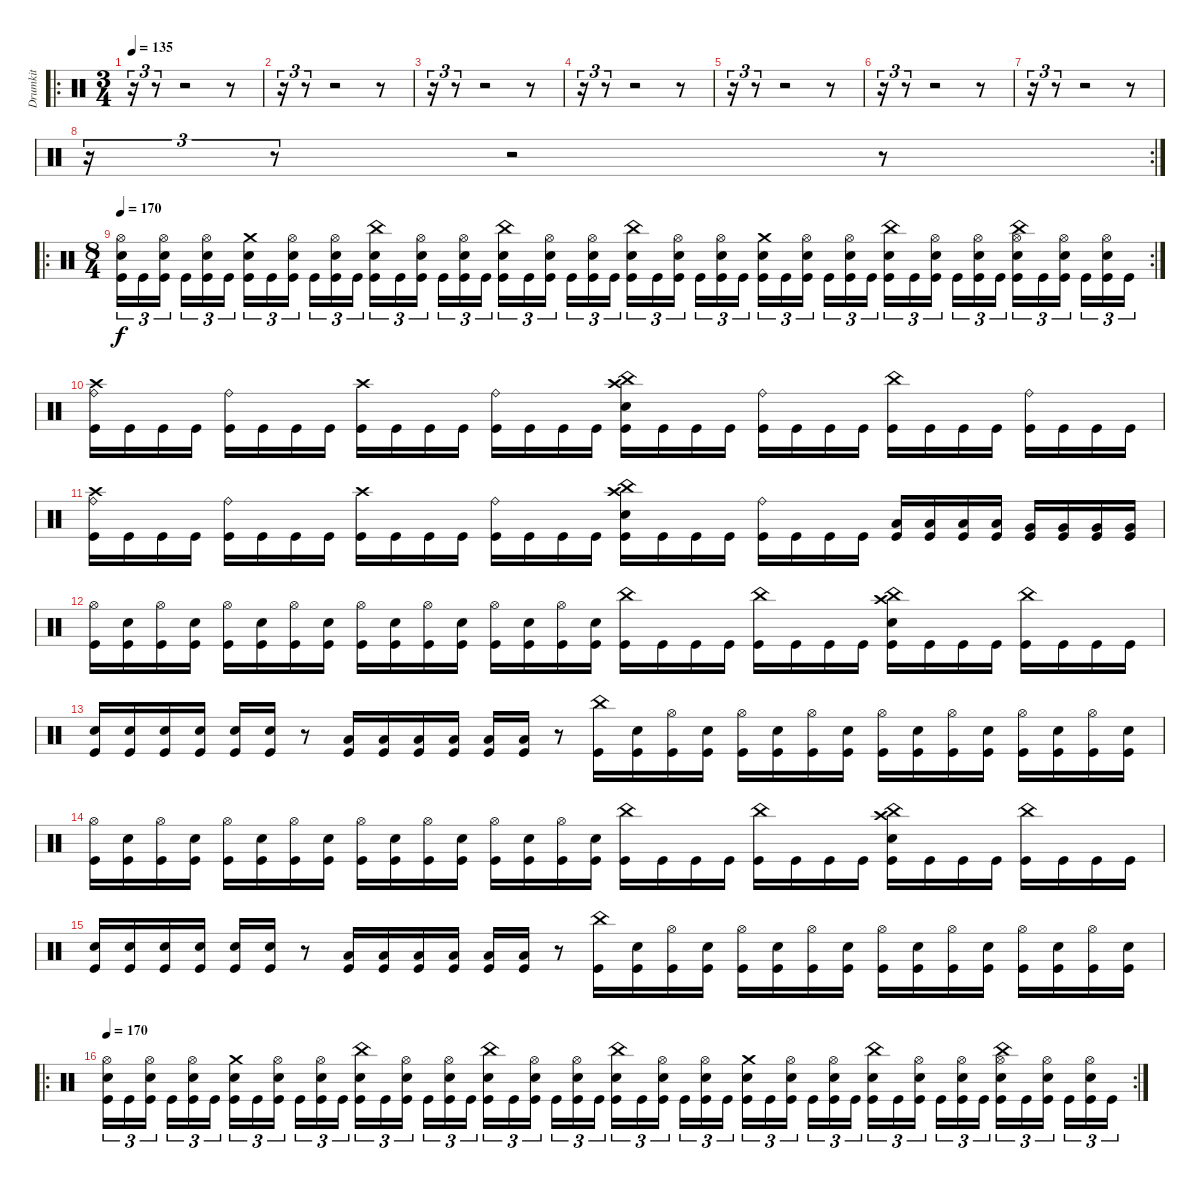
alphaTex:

\track ("Drumkit" "Drumkit") {mute instrument percussion}
\staff {score}
\articulation defaults
\ro
\ts (3 4)
\tempo 135
\clef neutral
\ks c
r.16{tu (3 2) dy f} r.8{tu (3 2)} r.2 r.8 |
r.16{tu (3 2)} r.8{tu (3 2)} r.2 r.8 |
r.16{tu (3 2)} r.8{tu (3 2)} r.2 r.8 |
r.16{tu (3 2)} r.8{tu (3 2)} r.2 r.8 |
r.16{tu (3 2)} r.8{tu (3 2)} r.2 r.8 |
r.16{tu (3 2)} r.8{tu (3 2)} r.2 r.8 |
r.16{tu (3 2)} r.8{tu (3 2)} r.2 r.8 |
\rc 2
r.16{tu (3 2)} r.8{tu (3 2)} r.2 r.8 |
\ro
\rc 2
\ts (8 4)
\tempo 170
("Kick (hit)" "Snare (hit) 2" "Hi-Hat (open)").16{tu (3 2)} "Kick (hit)".16{tu (3 2)} ("Kick (hit)" "Snare (hit) 2" "Hi-Hat (open)").16{tu (3 2) beam splitsecondary} "Kick (hit)".16{tu (3 2)} ("Kick (hit)" "Snare (hit) 2" "Hi-Hat (open)").16{tu (3 2)} "Kick (hit)".16{tu (3 2)} ("Kick (hit)" "Snare (hit) 2" "Crash medium (hit)").16{tu (3 2)} "Kick (hit)".16{tu (3 2)} ("Kick (hit)" "Snare (hit) 2" "Hi-Hat (open)").16{tu (3 2) beam splitsecondary} "Kick (hit)".16{tu (3 2)} ("Kick (hit)" "Snare (hit) 2" "Hi-Hat (open)").16{tu (3 2)} "Kick (hit)".16{tu (3 2)} ("Kick (hit)" "Snare (hit) 2" "China (hit)").16{tu (3 2)} "Kick (hit)".16{tu (3 2)} ("Kick (hit)" "Snare (hit) 2" "Hi-Hat (open)").16{tu (3 2) beam splitsecondary} "Kick (hit)".16{tu (3 2)} ("Kick (hit)" "Snare (hit) 2" "Hi-Hat (open)").16{tu (3 2)} "Kick (hit)".16{tu (3 2)} ("Kick (hit)" "Snare (hit) 2" "China (hit)").16{tu (3 2)} "Kick (hit)".16{tu (3 2)} ("Kick (hit)" "Snare (hit) 2" "Hi-Hat (open)").16{tu (3 2) beam splitsecondary} "Kick (hit)".16{tu (3 2)} ("Kick (hit)" "Snare (hit) 2" "Hi-Hat (open)").16{tu (3 2)} "Kick (hit)".16{tu (3 2)} ("Kick (hit)" "Snare (hit) 2" "China (hit)").16{tu (3 2)} "Kick (hit)".16{tu (3 2)} ("Kick (hit)" "Snare (hit) 2" "Hi-Hat (open)").16{tu (3 2) beam splitsecondary} "Kick (hit)".16{tu (3 2)} ("Kick (hit)" "Snare (hit) 2" "Hi-Hat (open)").16{tu (3 2)} "Kick (hit)".16{tu (3 2)} ("Kick (hit)" "Snare (hit) 2" "Crash medium (hit)").16{tu (3 2)} "Kick (hit)".16{tu (3 2)} ("Kick (hit)" "Snare (hit) 2" "Hi-Hat (open)").16{tu (3 2) beam splitsecondary} "Kick (hit)".16{tu (3 2)} ("Kick (hit)" "Snare (hit) 2" "Hi-Hat (open)").16{tu (3 2)} "Kick (hit)".16{tu (3 2)} ("Kick (hit)" "Snare (hit) 2" "China (hit)").16{tu (3 2)} "Kick (hit)".16{tu (3 2)} ("Kick (hit)" "Snare (hit) 2" "Hi-Hat (open)").16{tu (3 2) beam splitsecondary} "Kick (hit)".16{tu (3 2)} ("Kick (hit)" "Snare (hit) 2" "Hi-Hat (open)").16{tu (3 2)} "Kick (hit)".16{tu (3 2)} ("Kick (hit)" "Snare (hit) 2" "Hi-Hat (open)" "China (hit)").16{tu (3 2)} "Kick (hit)".16{tu (3 2)} ("Kick (hit)" "Snare (hit) 2" "Hi-Hat (open)").16{tu (3 2) beam splitsecondary} "Kick (hit)".16{tu (3 2)} ("Kick (hit)" "Snare (hit) 2" "Hi-Hat (open)").16{tu (3 2)} "Kick (hit)".16{tu (3 2)} |
("Kick (hit)" "Ride (bell)" "Crash high (hit)").16 "Kick (hit)".16 "Kick (hit)".16 "Kick (hit)".16 ("Kick (hit)" "Ride (bell)").16 "Kick (hit)".16 "Kick (hit)".16 "Kick (hit)".16 ("Kick (hit)" "Crash high (hit)").16 "Kick (hit)".16 "Kick (hit)".16 "Kick (hit)".16 ("Kick (hit)" "Ride (bell)").16 "Kick (hit)".16 "Kick (hit)".16 "Kick (hit)".16 ("Kick (hit)" "China (hit)" "Snare (hit) 2" "Crash high (hit)").16 "Kick (hit)".16 "Kick (hit)".16 "Kick (hit)".16 ("Kick (hit)" "Ride (bell)").16 "Kick (hit)".16 "Kick (hit)".16 "Kick (hit)".16 ("Kick (hit)" "China (hit)").16 "Kick (hit)".16 "Kick (hit)".16 "Kick (hit)".16 ("Kick (hit)" "Ride (bell)").16 "Kick (hit)".16 "Kick (hit)".16 "Kick (hit)".16 |
("Kick (hit)" "Ride (bell)" "Crash high (hit)").16 "Kick (hit)".16 "Kick (hit)".16 "Kick (hit)".16 ("Kick (hit)" "Ride (bell)").16 "Kick (hit)".16 "Kick (hit)".16 "Kick (hit)".16 ("Kick (hit)" "Crash high (hit)").16 "Kick (hit)".16 "Kick (hit)".16 "Kick (hit)".16 ("Kick (hit)" "Ride (bell)").16 "Kick (hit)".16 "Kick (hit)".16 "Kick (hit)".16 ("Kick (hit)" "China (hit)" "Snare (hit) 2" "Crash high (hit)").16 "Kick (hit)".16 "Kick (hit)".16 "Kick (hit)".16 ("Kick (hit)" "Ride (bell)").16 "Kick (hit)".16 "Kick (hit)".16 "Kick (hit)".16 ("Kick (hit)" "Low Tom (hit)").16 ("Kick (hit)" "Low Tom (hit)").16 ("Kick (hit)" "Low Tom (hit)").16 ("Kick (hit)" "Low Tom (hit)").16 ("Kick (hit)" "Very Low Tom (hit)").16 ("Kick (hit)" "Very Low Tom (hit)").16 ("Kick (hit)" "Very Low Tom (hit)").16 ("Kick (hit)" "Very Low Tom (hit)").16 |
("Kick (hit)" "Hi-Hat (open)").16 ("Kick (hit)" "Snare (hit) 2").16 ("Kick (hit)" "Hi-Hat (open)").16 ("Kick (hit)" "Snare (hit) 2").16 ("Kick (hit)" "Hi-Hat (open)").16 ("Kick (hit)" "Snare (hit) 2").16 ("Kick (hit)" "Hi-Hat (open)").16 ("Kick (hit)" "Snare (hit) 2").16 ("Kick (hit)" "Hi-Hat (open)").16 ("Kick (hit)" "Snare (hit) 2").16 ("Kick (hit)" "Hi-Hat (open)").16 ("Kick (hit)" "Snare (hit) 2").16 ("Kick (hit)" "Hi-Hat (open)").16 ("Kick (hit)" "Snare (hit) 2").16 ("Kick (hit)" "Hi-Hat (open)").16 ("Kick (hit)" "Snare (hit) 2").16 ("Kick (hit)" "China (hit)").16 "Kick (hit)".16 "Kick (hit)".16 "Kick (hit)".16 ("Kick (hit)" "China (hit)").16 "Kick (hit)".16 "Kick (hit)".16 "Kick (hit)".16 ("Kick (hit)" "China (hit)" "Snare (hit) 2" "Crash high (hit)").16 "Kick (hit)".16 "Kick (hit)".16 "Kick (hit)".16 ("Kick (hit)" "China (hit)").16 "Kick (hit)".16 "Kick (hit)".16 "Kick (hit)".16 |
("Kick (hit)" "Snare (hit) 2").16 ("Kick (hit)" "Snare (hit) 2").16 ("Kick (hit)" "Snare (hit) 2").16 ("Kick (hit)" "Snare (hit) 2").16 ("Kick (hit)" "Snare (hit) 2").16 ("Kick (hit)" "Snare (hit) 2").16 r.8 ("Kick (hit)" "Low Tom (hit)").16 ("Kick (hit)" "Low Tom (hit)").16 ("Kick (hit)" "Low Tom (hit)").16 ("Kick (hit)" "Low Tom (hit)").16 ("Kick (hit)" "Low Tom (hit)").16 ("Kick (hit)" "Low Tom (hit)").16 r.8 ("Kick (hit)" "China (hit)").16 ("Kick (hit)" "Snare (hit) 2").16 ("Kick (hit)" "Hi-Hat (open)").16 ("Kick (hit)" "Snare (hit) 2").16 ("Kick (hit)" "Hi-Hat (open)").16 ("Kick (hit)" "Snare (hit) 2").16 ("Kick (hit)" "Hi-Hat (open)").16 ("Kick (hit)" "Snare (hit) 2").16 ("Kick (hit)" "Hi-Hat (open)").16 ("Kick (hit)" "Snare (hit) 2").16 ("Kick (hit)" "Hi-Hat (open)").16 ("Kick (hit)" "Snare (hit) 2").16 ("Kick (hit)" "Hi-Hat (open)").16 ("Kick (hit)" "Snare (hit) 2").16 ("Kick (hit)" "Hi-Hat (open)").16 ("Kick (hit)" "Snare (hit) 2").16 |
("Kick (hit)" "Hi-Hat (open)").16 ("Kick (hit)" "Snare (hit) 2").16 ("Kick (hit)" "Hi-Hat (open)").16 ("Kick (hit)" "Snare (hit) 2").16 ("Kick (hit)" "Hi-Hat (open)").16 ("Kick (hit)" "Snare (hit) 2").16 ("Kick (hit)" "Hi-Hat (open)").16 ("Kick (hit)" "Snare (hit) 2").16 ("Kick (hit)" "Hi-Hat (open)").16 ("Kick (hit)" "Snare (hit) 2").16 ("Kick (hit)" "Hi-Hat (open)").16 ("Kick (hit)" "Snare (hit) 2").16 ("Kick (hit)" "Hi-Hat (open)").16 ("Kick (hit)" "Snare (hit) 2").16 ("Kick (hit)" "Hi-Hat (open)").16 ("Kick (hit)" "Snare (hit) 2").16 ("Kick (hit)" "China (hit)").16 "Kick (hit)".16 "Kick (hit)".16 "Kick (hit)".16 ("Kick (hit)" "China (hit)").16 "Kick (hit)".16 "Kick (hit)".16 "Kick (hit)".16 ("Kick (hit)" "China (hit)" "Snare (hit) 2" "Crash high (hit)").16 "Kick (hit)".16 "Kick (hit)".16 "Kick (hit)".16 ("Kick (hit)" "China (hit)").16 "Kick (hit)".16 "Kick (hit)".16 "Kick (hit)".16 |
("Kick (hit)" "Snare (hit) 2").16 ("Kick (hit)" "Snare (hit) 2").16 ("Kick (hit)" "Snare (hit) 2").16 ("Kick (hit)" "Snare (hit) 2").16 ("Kick (hit)" "Snare (hit) 2").16 ("Kick (hit)" "Snare (hit) 2").16 r.8 ("Kick (hit)" "Low Tom (hit)").16 ("Kick (hit)" "Low Tom (hit)").16 ("Kick (hit)" "Low Tom (hit)").16 ("Kick (hit)" "Low Tom (hit)").16 ("Kick (hit)" "Low Tom (hit)").16 ("Kick (hit)" "Low Tom (hit)").16 r.8 ("Kick (hit)" "China (hit)").16 ("Kick (hit)" "Snare (hit) 2").16 ("Kick (hit)" "Hi-Hat (open)").16 ("Kick (hit)" "Snare (hit) 2").16 ("Kick (hit)" "Hi-Hat (open)").16 ("Kick (hit)" "Snare (hit) 2").16 ("Kick (hit)" "Hi-Hat (open)").16 ("Kick (hit)" "Snare (hit) 2").16 ("Kick (hit)" "Hi-Hat (open)").16 ("Kick (hit)" "Snare (hit) 2").16 ("Kick (hit)" "Hi-Hat (open)").16 ("Kick (hit)" "Snare (hit) 2").16 ("Kick (hit)" "Hi-Hat (open)").16 ("Kick (hit)" "Snare (hit) 2").16 ("Kick (hit)" "Hi-Hat (open)").16 ("Kick (hit)" "Snare (hit) 2").16 |
\ro
\rc 2
\tempo 170
("Kick (hit)" "Snare (hit) 2" "Hi-Hat (open)").16{tu (3 2)} "Kick (hit)".16{tu (3 2)} ("Kick (hit)" "Snare (hit) 2" "Hi-Hat (open)").16{tu (3 2) beam splitsecondary} "Kick (hit)".16{tu (3 2)} ("Kick (hit)" "Snare (hit) 2" "Hi-Hat (open)").16{tu (3 2)} "Kick (hit)".16{tu (3 2)} ("Kick (hit)" "Snare (hit) 2" "Crash medium (hit)").16{tu (3 2)} "Kick (hit)".16{tu (3 2)} ("Kick (hit)" "Snare (hit) 2" "Hi-Hat (open)").16{tu (3 2) beam splitsecondary} "Kick (hit)".16{tu (3 2)} ("Kick (hit)" "Snare (hit) 2" "Hi-Hat (open)").16{tu (3 2)} "Kick (hit)".16{tu (3 2)} ("Kick (hit)" "Snare (hit) 2" "China (hit)").16{tu (3 2)} "Kick (hit)".16{tu (3 2)} ("Kick (hit)" "Snare (hit) 2" "Hi-Hat (open)").16{tu (3 2) beam splitsecondary} "Kick (hit)".16{tu (3 2)} ("Kick (hit)" "Snare (hit) 2" "Hi-Hat (open)").16{tu (3 2)} "Kick (hit)".16{tu (3 2)} ("Kick (hit)" "Snare (hit) 2" "China (hit)").16{tu (3 2)} "Kick (hit)".16{tu (3 2)} ("Kick (hit)" "Snare (hit) 2" "Hi-Hat (open)").16{tu (3 2) beam splitsecondary} "Kick (hit)".16{tu (3 2)} ("Kick (hit)" "Snare (hit) 2" "Hi-Hat (open)").16{tu (3 2)} "Kick (hit)".16{tu (3 2)} ("Kick (hit)" "Snare (hit) 2" "China (hit)").16{tu (3 2)} "Kick (hit)".16{tu (3 2)} ("Kick (hit)" "Snare (hit) 2" "Hi-Hat (open)").16{tu (3 2) beam splitsecondary} "Kick (hit)".16{tu (3 2)} ("Kick (hit)" "Snare (hit) 2" "Hi-Hat (open)").16{tu (3 2)} "Kick (hit)".16{tu (3 2)} ("Kick (hit)" "Snare (hit) 2" "Crash medium (hit)").16{tu (3 2)} "Kick (hit)".16{tu (3 2)} ("Kick (hit)" "Snare (hit) 2" "Hi-Hat (open)").16{tu (3 2) beam splitsecondary} "Kick (hit)".16{tu (3 2)} ("Kick (hit)" "Snare (hit) 2" "Hi-Hat (open)").16{tu (3 2)} "Kick (hit)".16{tu (3 2)} ("Kick (hit)" "Snare (hit) 2" "China (hit)").16{tu (3 2)} "Kick (hit)".16{tu (3 2)} ("Kick (hit)" "Snare (hit) 2" "Hi-Hat (open)").16{tu (3 2) beam splitsecondary} "Kick (hit)".16{tu (3 2)} ("Kick (hit)" "Snare (hit) 2" "Hi-Hat (open)").16{tu (3 2)} "Kick (hit)".16{tu (3 2)} ("Kick (hit)" "Snare (hit) 2" "Hi-Hat (open)" "China (hit)").16{tu (3 2)} "Kick (hit)".16{tu (3 2)} ("Kick (hit)" "Snare (hit) 2" "Hi-Hat (open)").16{tu (3 2) beam splitsecondary} "Kick (hit)".16{tu (3 2)} ("Kick (hit)" "Snare (hit) 2" "Hi-Hat (open)").16{tu (3 2)} "Kick (hit)".16{tu (3 2)}
